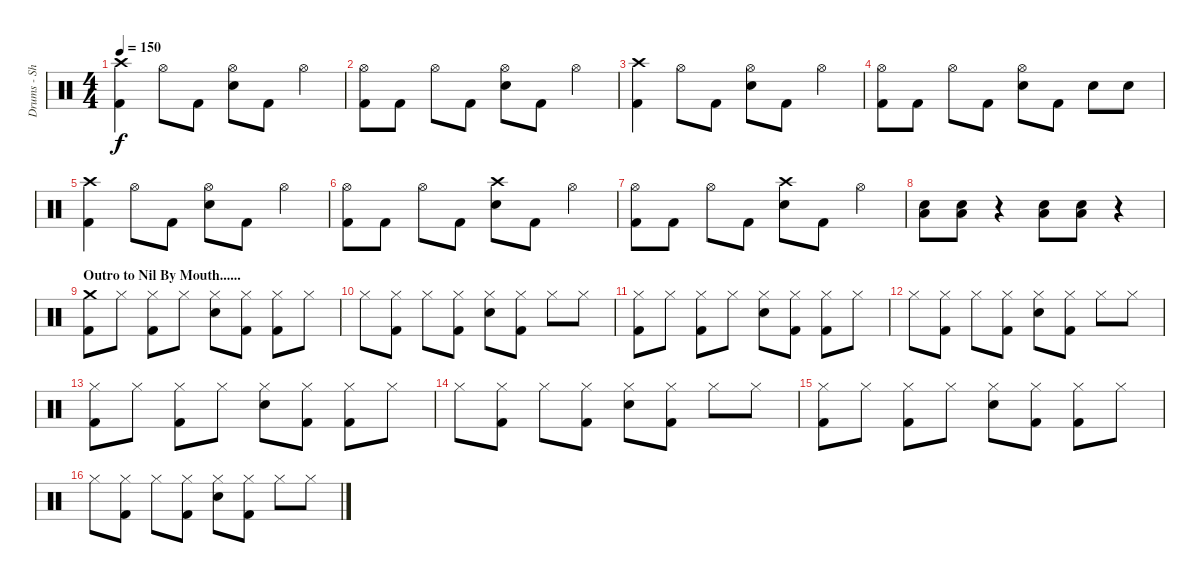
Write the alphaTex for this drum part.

\track ("Drums - Shelton" "Drums - Sh") {instrument percussion}
\staff {score}
\articulation defaults
\ts (4 4)
\tempo 150
\clef neutral
\ks c
("Crash high (hit)" "Kick (hit) 2").4{dy f} "Hi-Hat (open)".8 "Kick (hit) 2".8 ("Hi-Hat (open)" "Electric Snare (hit)").8 "Kick (hit) 2".8 "Hi-Hat (open)".4 |
("Hi-Hat (open)" "Kick (hit) 2").8 "Kick (hit) 2".8 "Hi-Hat (open)".8 "Kick (hit) 2".8 ("Hi-Hat (open)" "Electric Snare (hit)").8 "Kick (hit) 2".8 "Hi-Hat (open)".4 |
("Crash high (hit)" "Kick (hit) 2").4 "Hi-Hat (open)".8 "Kick (hit) 2".8 ("Hi-Hat (open)" "Electric Snare (hit)").8 "Kick (hit) 2".8 "Hi-Hat (open)".4 |
("Hi-Hat (open)" "Kick (hit) 2").8 "Kick (hit) 2".8 "Hi-Hat (open)".8 "Kick (hit) 2".8 ("Hi-Hat (open)" "Electric Snare (hit)").8 "Kick (hit) 2".8 "Electric Snare (hit)".8 "Electric Snare (hit)".8 |
("Crash high (hit)" "Kick (hit) 2").4 "Hi-Hat (open)".8 "Kick (hit) 2".8 ("Hi-Hat (open)" "Electric Snare (hit)").8 "Kick (hit) 2".8 "Hi-Hat (open)".4 |
("Hi-Hat (open)" "Kick (hit) 2").8 "Kick (hit) 2".8 "Hi-Hat (open)".8 "Kick (hit) 2".8 ("Crash high (hit)" "Electric Snare (hit)").8 "Kick (hit) 2".8 "Hi-Hat (open)".4 |
("Hi-Hat (open)" "Kick (hit) 2").8 "Kick (hit) 2".8 "Hi-Hat (open)".8 "Kick (hit) 2".8 ("Crash high (hit)" "Electric Snare (hit)").8 "Kick (hit) 2".8 "Hi-Hat (open)".4 |
("Low Tom (hit)" "Electric Snare (hit)").8 ("Low Tom (hit)" "Electric Snare (hit)").8 r.4 ("Low Tom (hit)" "Electric Snare (hit)").8 ("Low Tom (hit)" "Electric Snare (hit)").8 r.4 |
\section ("" "Outro to Nil By Mouth......")
("Crash medium (hit)" "Kick (hit) 2").8 "Hi-Hat (closed)".8 ("Hi-Hat (closed)" "Kick (hit) 2").8 "Hi-Hat (closed)".8 ("Hi-Hat (closed)" "Electric Snare (hit)").8 ("Hi-Hat (closed)" "Kick (hit) 2").8 ("Hi-Hat (closed)" "Kick (hit) 2").8 "Hi-Hat (closed)".8 |
"Hi-Hat (closed)".8 ("Hi-Hat (closed)" "Kick (hit) 2").8 "Hi-Hat (closed)".8 ("Hi-Hat (closed)" "Kick (hit) 2").8 ("Hi-Hat (closed)" "Electric Snare (hit)").8 ("Hi-Hat (closed)" "Kick (hit) 2").8 "Hi-Hat (closed)".8 "Hi-Hat (closed)".8 |
("Hi-Hat (closed)" "Kick (hit) 2").8 "Hi-Hat (closed)".8 ("Hi-Hat (closed)" "Kick (hit) 2").8 "Hi-Hat (closed)".8 ("Hi-Hat (closed)" "Electric Snare (hit)").8 ("Hi-Hat (closed)" "Kick (hit) 2").8 ("Hi-Hat (closed)" "Kick (hit) 2").8 "Hi-Hat (closed)".8 |
"Hi-Hat (closed)".8 ("Hi-Hat (closed)" "Kick (hit) 2").8 "Hi-Hat (closed)".8 ("Hi-Hat (closed)" "Kick (hit) 2").8 ("Hi-Hat (closed)" "Electric Snare (hit)").8 ("Hi-Hat (closed)" "Kick (hit) 2").8 "Hi-Hat (closed)".8 "Hi-Hat (closed)".8 |
("Hi-Hat (closed)" "Kick (hit) 2").8 "Hi-Hat (closed)".8 ("Hi-Hat (closed)" "Kick (hit) 2").8 "Hi-Hat (closed)".8 ("Hi-Hat (closed)" "Electric Snare (hit)").8 ("Hi-Hat (closed)" "Kick (hit) 2").8 ("Hi-Hat (closed)" "Kick (hit) 2").8 "Hi-Hat (closed)".8 |
"Hi-Hat (closed)".8 ("Hi-Hat (closed)" "Kick (hit) 2").8 "Hi-Hat (closed)".8 ("Hi-Hat (closed)" "Kick (hit) 2").8 ("Hi-Hat (closed)" "Electric Snare (hit)").8 ("Hi-Hat (closed)" "Kick (hit) 2").8 "Hi-Hat (closed)".8 "Hi-Hat (closed)".8 |
("Hi-Hat (closed)" "Kick (hit) 2").8 "Hi-Hat (closed)".8 ("Hi-Hat (closed)" "Kick (hit) 2").8 "Hi-Hat (closed)".8 ("Hi-Hat (closed)" "Electric Snare (hit)").8 ("Hi-Hat (closed)" "Kick (hit) 2").8 ("Hi-Hat (closed)" "Kick (hit) 2").8 "Hi-Hat (closed)".8 |
"Hi-Hat (closed)".8 ("Hi-Hat (closed)" "Kick (hit) 2").8 "Hi-Hat (closed)".8 ("Hi-Hat (closed)" "Kick (hit) 2").8 ("Hi-Hat (closed)" "Electric Snare (hit)").8 ("Hi-Hat (closed)" "Kick (hit) 2").8 "Hi-Hat (closed)".8 "Hi-Hat (closed)".8
